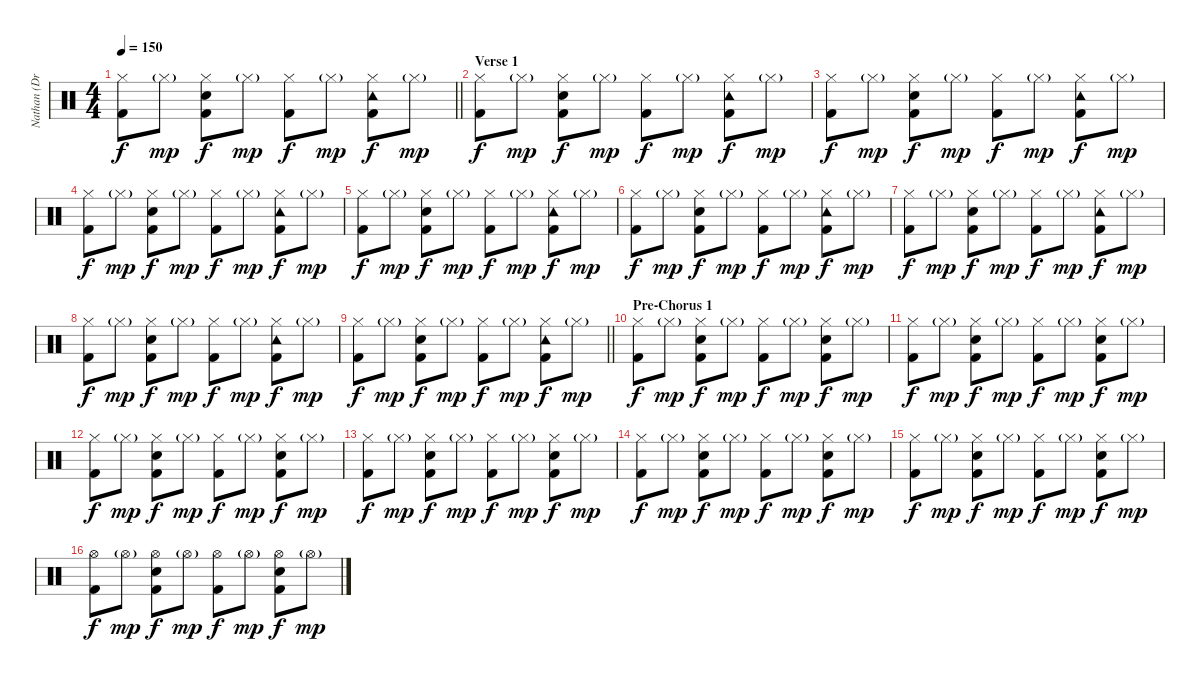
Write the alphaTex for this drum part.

\track ("Nathan (Drums)" "Nathan (Dr") {instrument percussion}
\staff {score}
\articulation defaults
\ts (4 4)
\tempo 150
\clef neutral
\barLineRight lightlight
\ks c
("Hi-Hat (closed)" "Kick (hit) 2").8{dy f} "Hi-Hat (closed)"{g}.8{dy mp} ("Hi-Hat (closed)" "Electric Snare (hit)" "Kick (hit) 2").8{dy f} "Hi-Hat (closed)"{g}.8{dy mp} ("Hi-Hat (closed)" "Kick (hit) 2").8{dy f} "Hi-Hat (closed)"{g}.8{dy mp} ("Hi-Hat (closed)" "Tambourine (hit)" "Kick (hit) 2").8{dy f} "Hi-Hat (closed)"{g}.8{dy mp} |
\section ("" "Verse 1")
("Hi-Hat (closed)" "Kick (hit) 2").8{dy f} "Hi-Hat (closed)"{g}.8{dy mp} ("Hi-Hat (closed)" "Electric Snare (hit)" "Kick (hit) 2").8{dy f} "Hi-Hat (closed)"{g}.8{dy mp} ("Hi-Hat (closed)" "Kick (hit) 2").8{dy f} "Hi-Hat (closed)"{g}.8{dy mp} ("Hi-Hat (closed)" "Tambourine (hit)" "Kick (hit) 2").8{dy f} "Hi-Hat (closed)"{g}.8{dy mp} |
("Hi-Hat (closed)" "Kick (hit) 2").8{dy f} "Hi-Hat (closed)"{g}.8{dy mp} ("Hi-Hat (closed)" "Electric Snare (hit)" "Kick (hit) 2").8{dy f} "Hi-Hat (closed)"{g}.8{dy mp} ("Hi-Hat (closed)" "Kick (hit) 2").8{dy f} "Hi-Hat (closed)"{g}.8{dy mp} ("Hi-Hat (closed)" "Tambourine (hit)" "Kick (hit) 2").8{dy f} "Hi-Hat (closed)"{g}.8{dy mp} |
("Hi-Hat (closed)" "Kick (hit) 2").8{dy f} "Hi-Hat (closed)"{g}.8{dy mp} ("Hi-Hat (closed)" "Electric Snare (hit)" "Kick (hit) 2").8{dy f} "Hi-Hat (closed)"{g}.8{dy mp} ("Hi-Hat (closed)" "Kick (hit) 2").8{dy f} "Hi-Hat (closed)"{g}.8{dy mp} ("Hi-Hat (closed)" "Tambourine (hit)" "Kick (hit) 2").8{dy f} "Hi-Hat (closed)"{g}.8{dy mp} |
("Hi-Hat (closed)" "Kick (hit) 2").8{dy f} "Hi-Hat (closed)"{g}.8{dy mp} ("Hi-Hat (closed)" "Electric Snare (hit)" "Kick (hit) 2").8{dy f} "Hi-Hat (closed)"{g}.8{dy mp} ("Hi-Hat (closed)" "Kick (hit) 2").8{dy f} "Hi-Hat (closed)"{g}.8{dy mp} ("Hi-Hat (closed)" "Tambourine (hit)" "Kick (hit) 2").8{dy f} "Hi-Hat (closed)"{g}.8{dy mp} |
("Hi-Hat (closed)" "Kick (hit) 2").8{dy f} "Hi-Hat (closed)"{g}.8{dy mp} ("Hi-Hat (closed)" "Electric Snare (hit)" "Kick (hit) 2").8{dy f} "Hi-Hat (closed)"{g}.8{dy mp} ("Hi-Hat (closed)" "Kick (hit) 2").8{dy f} "Hi-Hat (closed)"{g}.8{dy mp} ("Hi-Hat (closed)" "Tambourine (hit)" "Kick (hit) 2").8{dy f} "Hi-Hat (closed)"{g}.8{dy mp} |
("Hi-Hat (closed)" "Kick (hit) 2").8{dy f} "Hi-Hat (closed)"{g}.8{dy mp} ("Hi-Hat (closed)" "Electric Snare (hit)" "Kick (hit) 2").8{dy f} "Hi-Hat (closed)"{g}.8{dy mp} ("Hi-Hat (closed)" "Kick (hit) 2").8{dy f} "Hi-Hat (closed)"{g}.8{dy mp} ("Hi-Hat (closed)" "Tambourine (hit)" "Kick (hit) 2").8{dy f} "Hi-Hat (closed)"{g}.8{dy mp} |
("Hi-Hat (closed)" "Kick (hit) 2").8{dy f} "Hi-Hat (closed)"{g}.8{dy mp} ("Hi-Hat (closed)" "Electric Snare (hit)" "Kick (hit) 2").8{dy f} "Hi-Hat (closed)"{g}.8{dy mp} ("Hi-Hat (closed)" "Kick (hit) 2").8{dy f} "Hi-Hat (closed)"{g}.8{dy mp} ("Hi-Hat (closed)" "Tambourine (hit)" "Kick (hit) 2").8{dy f} "Hi-Hat (closed)"{g}.8{dy mp} |
\barLineRight lightlight
("Hi-Hat (closed)" "Kick (hit) 2").8{dy f} "Hi-Hat (closed)"{g}.8{dy mp} ("Hi-Hat (closed)" "Electric Snare (hit)" "Kick (hit) 2").8{dy f} "Hi-Hat (closed)"{g}.8{dy mp} ("Hi-Hat (closed)" "Kick (hit) 2").8{dy f} "Hi-Hat (closed)"{g}.8{dy mp} ("Hi-Hat (closed)" "Tambourine (hit)" "Kick (hit) 2").8{dy f} "Hi-Hat (closed)"{g}.8{dy mp} |
\section ("" "Pre-Chorus 1")
("Hi-Hat (closed)" "Kick (hit) 2").8{dy f} "Hi-Hat (closed)"{g}.8{dy mp} ("Hi-Hat (closed)" "Electric Snare (hit)" "Kick (hit) 2").8{dy f} "Hi-Hat (closed)"{g}.8{dy mp} ("Hi-Hat (closed)" "Kick (hit) 2").8{dy f} "Hi-Hat (closed)"{g}.8{dy mp} ("Hi-Hat (closed)" "Electric Snare (hit)" "Kick (hit) 2").8{dy f} "Hi-Hat (closed)"{g}.8{dy mp} |
("Hi-Hat (closed)" "Kick (hit) 2").8{dy f} "Hi-Hat (closed)"{g}.8{dy mp} ("Hi-Hat (closed)" "Electric Snare (hit)" "Kick (hit) 2").8{dy f} "Hi-Hat (closed)"{g}.8{dy mp} ("Hi-Hat (closed)" "Kick (hit) 2").8{dy f} "Hi-Hat (closed)"{g}.8{dy mp} ("Hi-Hat (closed)" "Electric Snare (hit)" "Kick (hit) 2").8{dy f} "Hi-Hat (closed)"{g}.8{dy mp} |
("Hi-Hat (closed)" "Kick (hit) 2").8{dy f} "Hi-Hat (closed)"{g}.8{dy mp} ("Hi-Hat (closed)" "Electric Snare (hit)" "Kick (hit) 2").8{dy f} "Hi-Hat (closed)"{g}.8{dy mp} ("Hi-Hat (closed)" "Kick (hit) 2").8{dy f} "Hi-Hat (closed)"{g}.8{dy mp} ("Hi-Hat (closed)" "Electric Snare (hit)" "Kick (hit) 2").8{dy f} "Hi-Hat (closed)"{g}.8{dy mp} |
("Hi-Hat (closed)" "Kick (hit) 2").8{dy f} "Hi-Hat (closed)"{g}.8{dy mp} ("Hi-Hat (closed)" "Electric Snare (hit)" "Kick (hit) 2").8{dy f} "Hi-Hat (closed)"{g}.8{dy mp} ("Hi-Hat (closed)" "Kick (hit) 2").8{dy f} "Hi-Hat (closed)"{g}.8{dy mp} ("Hi-Hat (closed)" "Electric Snare (hit)" "Kick (hit) 2").8{dy f} "Hi-Hat (closed)"{g}.8{dy mp} |
("Hi-Hat (closed)" "Kick (hit) 2").8{dy f} "Hi-Hat (closed)"{g}.8{dy mp} ("Hi-Hat (closed)" "Electric Snare (hit)" "Kick (hit) 2").8{dy f} "Hi-Hat (closed)"{g}.8{dy mp} ("Hi-Hat (closed)" "Kick (hit) 2").8{dy f} "Hi-Hat (closed)"{g}.8{dy mp} ("Hi-Hat (closed)" "Electric Snare (hit)" "Kick (hit) 2").8{dy f} "Hi-Hat (closed)"{g}.8{dy mp} |
("Hi-Hat (closed)" "Kick (hit) 2").8{dy f} "Hi-Hat (closed)"{g}.8{dy mp} ("Hi-Hat (closed)" "Electric Snare (hit)" "Kick (hit) 2").8{dy f} "Hi-Hat (closed)"{g}.8{dy mp} ("Hi-Hat (closed)" "Kick (hit) 2").8{dy f} "Hi-Hat (closed)"{g}.8{dy mp} ("Hi-Hat (closed)" "Electric Snare (hit)" "Kick (hit) 2").8{dy f} "Hi-Hat (closed)"{g}.8{dy mp} |
("Hi-Hat (open)" "Kick (hit) 2").8{dy f} "Hi-Hat (open)"{g}.8{dy mp} ("Hi-Hat (open)" "Electric Snare (hit)" "Kick (hit) 2").8{dy f} "Hi-Hat (open)"{g}.8{dy mp} ("Hi-Hat (open)" "Kick (hit) 2").8{dy f} "Hi-Hat (open)"{g}.8{dy mp} ("Hi-Hat (open)" "Electric Snare (hit)" "Kick (hit) 2").8{dy f} "Hi-Hat (open)"{g}.8{dy mp}
